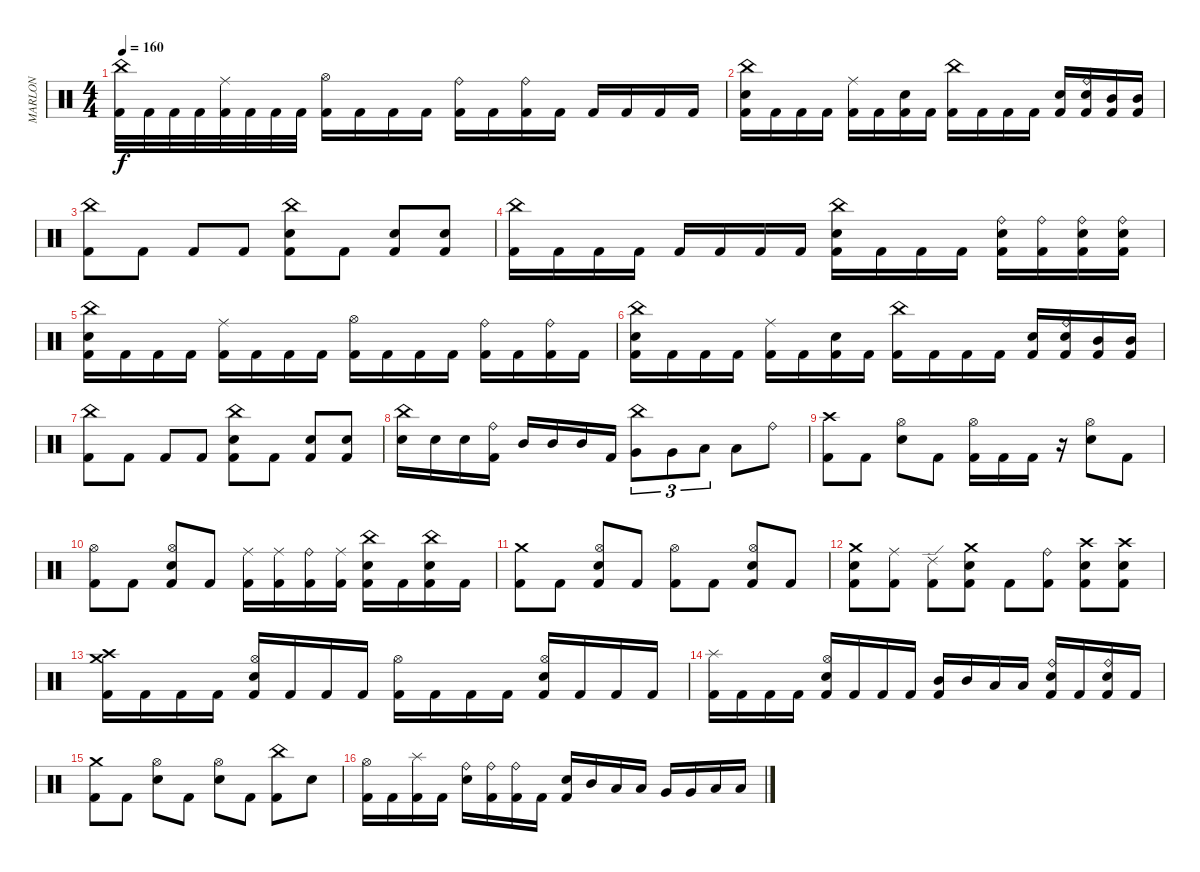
\track ("MARLON" "MARLON") {instrument percussion}
\staff {score}
\articulation defaults
\ts (4 4)
\tempo 160
\clef neutral
\ks c
("China (hit)" "Kick (hit) 2").32{dy f} "Kick (hit) 2".32 "Kick (hit) 2".32 "Kick (hit) 2".32 ("Ride (middle)" "Kick (hit) 2").32 "Kick (hit) 2".32 "Kick (hit) 2".32 "Kick (hit) 2".32 ("Hi-Hat (open)" "Kick (hit) 2").16 "Kick (hit) 2".16 "Kick (hit) 2".16 "Kick (hit) 2".16 ("Ride (bell)" "Kick (hit) 2").16 "Kick (hit) 2".16 ("Ride (bell)" "Kick (hit) 2").16 "Kick (hit) 2".16 "Kick (hit) 2".16 "Kick (hit) 2".16 "Kick (hit) 2".16 "Kick (hit) 2".16 |
("China (hit)" "Electric Snare (hit)" "Kick (hit) 2").16 "Kick (hit) 2".16 "Kick (hit) 2".16 "Kick (hit) 2".16 ("Ride (middle)" "Kick (hit) 2").16 "Kick (hit) 2".16 ("Electric Snare (hit)" "Kick (hit) 2").16 "Kick (hit) 2".16 ("China (hit)" "Kick (hit) 2").16 "Kick (hit) 2".16 "Kick (hit) 2".16 "Kick (hit) 2".16 ("Electric Snare (hit)" "Kick (hit) 2").16 ("Ride (bell)" "Electric Snare (hit)" "Kick (hit) 2").16 ("Mid Tom (hit)" "Kick (hit) 2").16 ("Mid Tom (hit)" "Kick (hit) 2").16 |
("China (hit)" "Kick (hit) 2").8 "Kick (hit) 2".8 "Kick (hit) 2".8 "Kick (hit) 2".8 ("China (hit)" "Electric Snare (hit)" "Kick (hit) 2").8 "Kick (hit) 2".8 ("Electric Snare (hit)" "Kick (hit) 2").8 ("Electric Snare (hit)" "Kick (hit) 2").8 |
("China (hit)" "Kick (hit) 2").16 "Kick (hit) 2".16 "Kick (hit) 2".16 "Kick (hit) 2".16 "Kick (hit) 2".16 "Kick (hit) 2".16 "Kick (hit) 2".16 "Kick (hit) 2".16 ("China (hit)" "Electric Snare (hit)" "Kick (hit) 2").16 "Kick (hit) 2".16 "Kick (hit) 2".16 "Kick (hit) 2".16 ("Ride (bell)" "Electric Snare (hit)" "Kick (hit) 2").16 ("Ride (bell)" "Kick (hit) 2").16 ("Ride (bell)" "Electric Snare (hit)" "Kick (hit) 2").16 ("Ride (bell)" "Electric Snare (hit)" "Kick (hit) 2").16 |
("China (hit)" "Electric Snare (hit)" "Kick (hit) 2").16 "Kick (hit) 2".16 "Kick (hit) 2".16 "Kick (hit) 2".16 ("Ride (middle)" "Kick (hit) 2").16 "Kick (hit) 2".16 "Kick (hit) 2".16 "Kick (hit) 2".16 ("Hi-Hat (open)" "Kick (hit) 2").16 "Kick (hit) 2".16 "Kick (hit) 2".16 "Kick (hit) 2".16 ("Ride (bell)" "Kick (hit) 2").16 "Kick (hit) 2".16 ("Ride (bell)" "Kick (hit) 2").16 "Kick (hit) 2".16 |
("China (hit)" "Electric Snare (hit)" "Kick (hit) 2").16 "Kick (hit) 2".16 "Kick (hit) 2".16 "Kick (hit) 2".16 ("Ride (middle)" "Kick (hit) 2").16 "Kick (hit) 2".16 ("Electric Snare (hit)" "Kick (hit) 2").16 "Kick (hit) 2".16 ("China (hit)" "Kick (hit) 2").16 "Kick (hit) 2".16 "Kick (hit) 2".16 "Kick (hit) 2".16 ("Electric Snare (hit)" "Kick (hit) 2").16 ("Ride (bell)" "Electric Snare (hit)" "Kick (hit) 2").16 ("Mid Tom (hit)" "Kick (hit) 2").16 ("Mid Tom (hit)" "Kick (hit) 2").16 |
("China (hit)" "Kick (hit) 2").8 "Kick (hit) 2".8 "Kick (hit) 2".8 "Kick (hit) 2".8 ("China (hit)" "Electric Snare (hit)" "Kick (hit) 2").8 "Kick (hit) 2".8 ("Electric Snare (hit)" "Kick (hit) 2").8 ("Electric Snare (hit)" "Kick (hit) 2").8 |
("China (hit)" "Electric Snare (hit)").16 "Electric Snare (hit)".16 "Electric Snare (hit)".16 ("Ride (bell)" "Kick (hit) 2").16 "Mid Tom (hit)".16 "Mid Tom (hit)".16 "Mid Tom (hit)".16 "Kick (hit) 2".16 ("China (hit)" "Very Low Tom (hit)").8{tu (3 2)} "Very Low Tom (hit)".8{tu (3 2)} "Low Floor Tom (hit)".8{tu (3 2)} "Low Floor Tom (hit)".8 "Ride (bell)".8 |
("Crash high (hit)" "Kick (hit) 2").8 "Kick (hit) 2".8 ("Hi-Hat (open)" "Electric Snare (hit)").8 "Kick (hit) 2".8 ("Hi-Hat (open)" "Kick (hit) 2").16 "Kick (hit) 2".16 "Kick (hit) 2".16 r.16 ("Hi-Hat (open)" "Electric Snare (hit)").8 "Kick (hit) 2".8 |
("Hi-Hat (open)" "Kick (hit) 2").8 "Kick (hit) 2".8 ("Hi-Hat (open)" "Electric Snare (hit)" "Kick (hit) 2").8 "Kick (hit) 2".8 ("Ride (middle)" "Kick (hit) 2").16 ("Ride (middle)" "Kick (hit) 2").16 ("Ride (bell)" "Kick (hit) 2").16 ("Ride (middle)" "Kick (hit) 2").16 ("China (hit)" "Electric Snare (hit)" "Kick (hit) 2").16 "Kick (hit) 2".16 ("China (hit)" "Electric Snare (hit)" "Kick (hit) 2").16 "Kick (hit) 2".16 |
("Crash medium (hit)" "Kick (hit) 2").8 "Kick (hit) 2".8 ("Hi-Hat (open)" "Electric Snare (hit)" "Kick (hit) 2").8 "Kick (hit) 2".8 ("Hi-Hat (open)" "Kick (hit) 2").8 "Kick (hit) 2".8 ("Hi-Hat (open)" "Electric Snare (hit)" "Kick (hit) 2").8 "Kick (hit) 2".8 |
("Crash medium (hit)" "Electric Snare (hit)" "Kick (hit) 2").8 ("Ride (middle)" "Kick (hit) 2").8 ("Ride (edge) 2" "Kick (hit) 2").8 ("Crash medium (hit)" "Electric Snare (hit)" "Kick (hit) 2").8 "Kick (hit) 2".8 ("Ride (bell)" "Kick (hit) 2").8 ("Crash high (hit)" "Electric Snare (hit)" "Kick (hit) 2").8 ("Crash high (hit)" "Electric Snare (hit)" "Kick (hit) 2").8 |
("Crash medium (hit)" "Crash high (hit)" "Kick (hit) 2").16 "Kick (hit) 2".16 "Kick (hit) 2".16 "Kick (hit) 2".16 ("Hi-Hat (open)" "Electric Snare (hit)" "Kick (hit) 2").16 "Kick (hit) 2".16 "Kick (hit) 2".16 "Kick (hit) 2".16 ("Hi-Hat (open)" "Kick (hit) 2").16 "Kick (hit) 2".16 "Kick (hit) 2".16 "Kick (hit) 2".16 ("Hi-Hat (open)" "Electric Snare (hit)" "Kick (hit) 2").16 "Kick (hit) 2".16 "Kick (hit) 2".16 "Kick (hit) 2".16 |
("Splash (hit)" "Kick (hit) 2").16 "Kick (hit) 2".16 "Kick (hit) 2".16 "Kick (hit) 2".16 ("Hi-Hat (open)" "Electric Snare (hit)" "Kick (hit) 2").16 "Kick (hit) 2".16 "Kick (hit) 2".16 "Kick (hit) 2".16 ("Mid Tom (hit)" "Kick (hit) 2").16 "Mid Tom (hit)".16 "Low Tom (hit)".16 "Low Tom (hit)".16 ("Ride (bell)" "Electric Snare (hit)" "Kick (hit) 2").16 "Kick (hit) 2".16 ("Ride (bell)" "Electric Snare (hit)" "Kick (hit) 2").16 "Kick (hit) 2".16 |
("Crash medium (hit)" "Kick (hit) 2").8 "Kick (hit) 2".8 ("Hi-Hat (open)" "Electric Snare (hit)").8 "Kick (hit) 2".8 ("Hi-Hat (open)" "Electric Snare (hit)").8 "Kick (hit) 2".8 ("China (hit)" "Kick (hit) 2").8 "Electric Snare (hit)".8 |
("Hi-Hat (open)" "Kick (hit) 2").16 "Kick (hit) 2".16 ("Splash (hit)" "Kick (hit) 2").16 "Kick (hit) 2".16 ("Ride (bell)" "Electric Snare (hit)").16 ("Ride (bell)" "Kick (hit) 2").16 ("Ride (bell)" "Kick (hit) 2").16 "Kick (hit) 2".16 ("Electric Snare (hit)" "Kick (hit) 2").16 "Mid Tom (hit)".16 "Low Tom (hit)".16 "Low Tom (hit)".16 "Very Low Tom (hit)".16 "Very Low Tom (hit)".16 "Low Floor Tom (hit)".16 "Low Floor Tom (hit)".16
